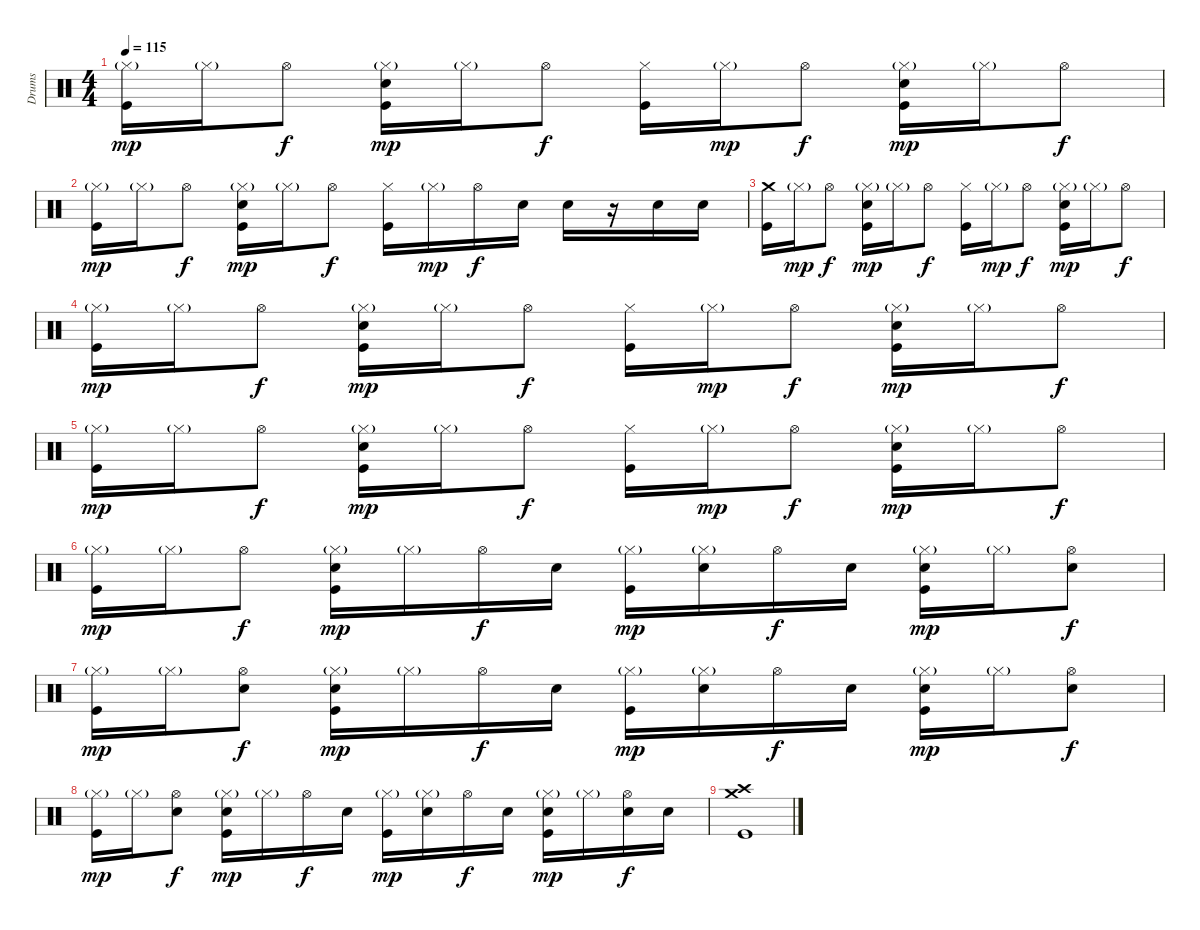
\track ("Drums" "Drums") {instrument percussion}
\staff {score}
\articulation defaults
\ts (4 4)
\tempo 115
\clef neutral
\ks c
("Hi-Hat (closed)"{g} "Kick (hit)").16{dy mp} "Hi-Hat (closed)"{g}.16 "Hi-Hat (open)".8{dy f} ("Hi-Hat (closed)"{g} "Electric Snare (hit)" "Kick (hit)").16{dy mp} "Hi-Hat (closed)"{g}.16 "Hi-Hat (open)".8{dy f} ("Hi-Hat (closed)" "Kick (hit)").16 "Hi-Hat (closed)"{g}.16{dy mp} "Hi-Hat (open)".8{dy f} ("Hi-Hat (closed)"{g} "Electric Snare (hit)" "Kick (hit)").16{dy mp} "Hi-Hat (closed)"{g}.16 "Hi-Hat (open)".8{dy f} |
("Hi-Hat (closed)"{g} "Kick (hit)").16{dy mp} "Hi-Hat (closed)"{g}.16 "Hi-Hat (open)".8{dy f} ("Hi-Hat (closed)"{g} "Electric Snare (hit)" "Kick (hit)").16{dy mp} "Hi-Hat (closed)"{g}.16 "Hi-Hat (open)".8{dy f} ("Hi-Hat (closed)" "Kick (hit)").16 "Hi-Hat (closed)"{g}.16{dy mp} "Hi-Hat (open)".16{dy f} "Electric Snare (hit)".16 "Electric Snare (hit)".16 r.16 "Electric Snare (hit)".16 "Electric Snare (hit)".16 |
("Crash medium (hit)" "Kick (hit)").16 "Hi-Hat (closed)"{g}.16{dy mp} "Hi-Hat (open)".8{dy f} ("Hi-Hat (closed)"{g} "Electric Snare (hit)" "Kick (hit)").16{dy mp} "Hi-Hat (closed)"{g}.16 "Hi-Hat (open)".8{dy f} ("Hi-Hat (closed)" "Kick (hit)").16 "Hi-Hat (closed)"{g}.16{dy mp} "Hi-Hat (open)".8{dy f} ("Hi-Hat (closed)"{g} "Electric Snare (hit)" "Kick (hit)").16{dy mp} "Hi-Hat (closed)"{g}.16 "Hi-Hat (open)".8{dy f} |
("Hi-Hat (closed)"{g} "Kick (hit)").16{dy mp} "Hi-Hat (closed)"{g}.16 "Hi-Hat (open)".8{dy f} ("Hi-Hat (closed)"{g} "Electric Snare (hit)" "Kick (hit)").16{dy mp} "Hi-Hat (closed)"{g}.16 "Hi-Hat (open)".8{dy f} ("Hi-Hat (closed)" "Kick (hit)").16 "Hi-Hat (closed)"{g}.16{dy mp} "Hi-Hat (open)".8{dy f} ("Hi-Hat (closed)"{g} "Electric Snare (hit)" "Kick (hit)").16{dy mp} "Hi-Hat (closed)"{g}.16 "Hi-Hat (open)".8{dy f} |
("Hi-Hat (closed)"{g} "Kick (hit)").16{dy mp} "Hi-Hat (closed)"{g}.16 "Hi-Hat (open)".8{dy f} ("Hi-Hat (closed)"{g} "Electric Snare (hit)" "Kick (hit)").16{dy mp} "Hi-Hat (closed)"{g}.16 "Hi-Hat (open)".8{dy f} ("Hi-Hat (closed)" "Kick (hit)").16 "Hi-Hat (closed)"{g}.16{dy mp} "Hi-Hat (open)".8{dy f} ("Hi-Hat (closed)"{g} "Electric Snare (hit)" "Kick (hit)").16{dy mp} "Hi-Hat (closed)"{g}.16 "Hi-Hat (open)".8{dy f} |
("Hi-Hat (closed)"{g} "Kick (hit)").16{dy mp} "Hi-Hat (closed)"{g}.16 "Hi-Hat (open)".8{dy f} ("Hi-Hat (closed)"{g} "Electric Snare (hit)" "Kick (hit)").16{dy mp} "Hi-Hat (closed)"{g}.16 "Hi-Hat (open)".16{dy f} "Electric Snare (hit)".16 ("Hi-Hat (closed)"{g} "Kick (hit)").16{dy mp} ("Hi-Hat (closed)"{g} "Electric Snare (hit)").16 "Hi-Hat (open)".16{dy f} "Electric Snare (hit)".16 ("Hi-Hat (closed)"{g} "Electric Snare (hit)" "Kick (hit)").16{dy mp} "Hi-Hat (closed)"{g}.16 ("Hi-Hat (open)" "Electric Snare (hit)").8{dy f} |
("Hi-Hat (closed)"{g} "Kick (hit)").16{dy mp} "Hi-Hat (closed)"{g}.16 ("Hi-Hat (open)" "Electric Snare (hit)").8{dy f} ("Hi-Hat (closed)"{g} "Electric Snare (hit)" "Kick (hit)").16{dy mp} "Hi-Hat (closed)"{g}.16 "Hi-Hat (open)".16{dy f} "Electric Snare (hit)".16 ("Hi-Hat (closed)"{g} "Kick (hit)").16{dy mp} ("Hi-Hat (closed)"{g} "Electric Snare (hit)").16 "Hi-Hat (open)".16{dy f} "Electric Snare (hit)".16 ("Hi-Hat (closed)"{g} "Electric Snare (hit)" "Kick (hit)").16{dy mp} "Hi-Hat (closed)"{g}.16 ("Hi-Hat (open)" "Electric Snare (hit)").8{dy f} |
("Hi-Hat (closed)"{g} "Kick (hit)").16{dy mp} "Hi-Hat (closed)"{g}.16 ("Hi-Hat (open)" "Electric Snare (hit)").8{dy f} ("Hi-Hat (closed)"{g} "Electric Snare (hit)" "Kick (hit)").16{dy mp} "Hi-Hat (closed)"{g}.16 "Hi-Hat (open)".16{dy f} "Electric Snare (hit)".16 ("Hi-Hat (closed)"{g} "Kick (hit)").16{dy mp} ("Hi-Hat (closed)"{g} "Electric Snare (hit)").16 "Hi-Hat (open)".16{dy f} "Electric Snare (hit)".16 ("Hi-Hat (closed)"{g} "Electric Snare (hit)" "Kick (hit)").16{dy mp} "Hi-Hat (closed)"{g}.16 ("Hi-Hat (open)" "Electric Snare (hit)").16{dy f} "Electric Snare (hit)".16 |
("Crash medium (hit)" "Crash high (hit)" "Kick (hit)").1
